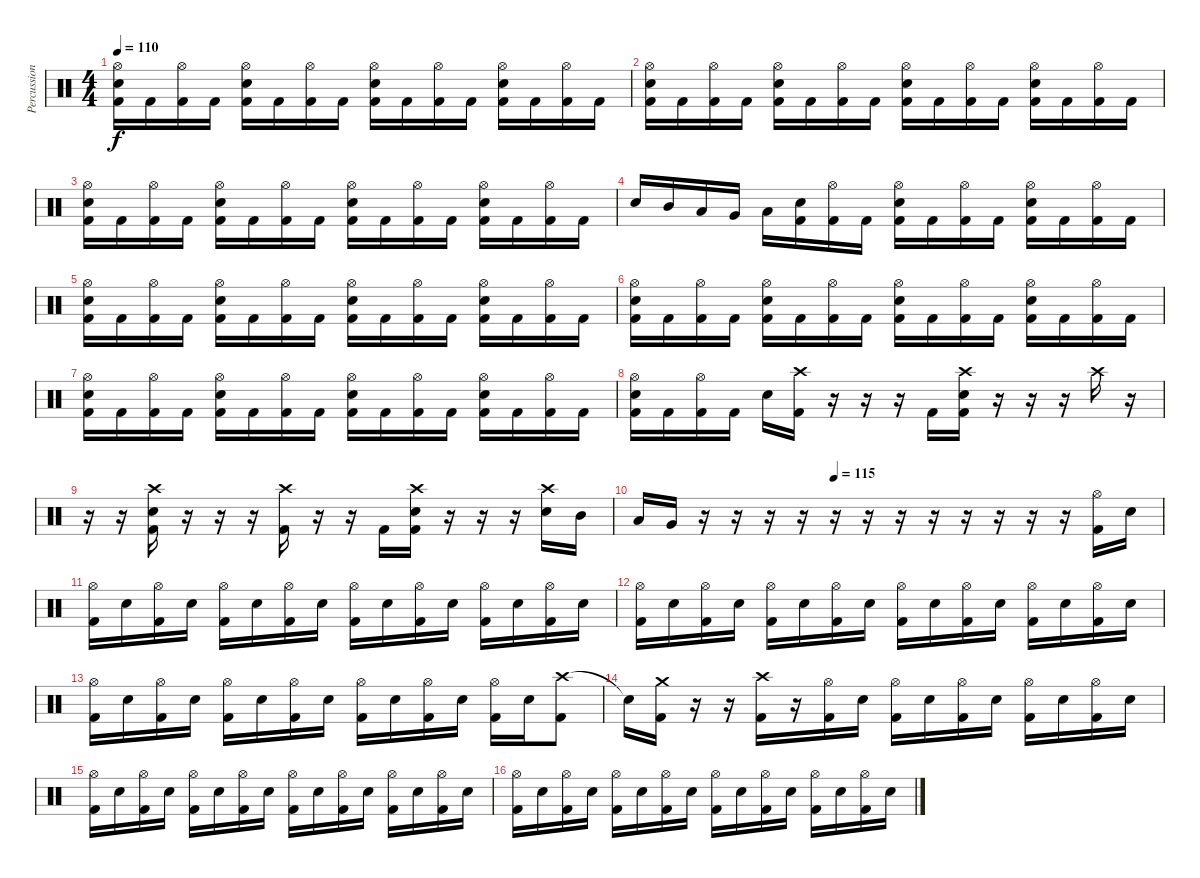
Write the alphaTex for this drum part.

\track ("Percussion" "Percussion") {instrument percussion}
\staff {score}
\articulation defaults
\ts (4 4)
\tempo 110
\clef neutral
\ks c
("Hi-Hat (open)" "Snare (hit) 2" "Kick (hit) 2").16{dy f} "Kick (hit) 2".16 ("Hi-Hat (open)" "Kick (hit) 2").16 "Kick (hit) 2".16 ("Hi-Hat (open)" "Snare (hit) 2" "Kick (hit) 2").16 "Kick (hit) 2".16 ("Hi-Hat (open)" "Kick (hit) 2").16 "Kick (hit) 2".16 ("Hi-Hat (open)" "Snare (hit) 2" "Kick (hit) 2").16 "Kick (hit) 2".16 ("Hi-Hat (open)" "Kick (hit) 2").16 "Kick (hit) 2".16 ("Hi-Hat (open)" "Snare (hit) 2" "Kick (hit) 2").16 "Kick (hit) 2".16 ("Hi-Hat (open)" "Kick (hit) 2").16 "Kick (hit) 2".16 |
("Hi-Hat (open)" "Snare (hit) 2" "Kick (hit) 2").16 "Kick (hit) 2".16 ("Hi-Hat (open)" "Kick (hit) 2").16 "Kick (hit) 2".16 ("Hi-Hat (open)" "Snare (hit) 2" "Kick (hit) 2").16 "Kick (hit) 2".16 ("Hi-Hat (open)" "Kick (hit) 2").16 "Kick (hit) 2".16 ("Hi-Hat (open)" "Snare (hit) 2" "Kick (hit) 2").16 "Kick (hit) 2".16 ("Hi-Hat (open)" "Kick (hit) 2").16 "Kick (hit) 2".16 ("Hi-Hat (open)" "Snare (hit) 2" "Kick (hit) 2").16 "Kick (hit) 2".16 ("Hi-Hat (open)" "Kick (hit) 2").16 "Kick (hit) 2".16 |
("Hi-Hat (open)" "Snare (hit) 2" "Kick (hit) 2").16 "Kick (hit) 2".16 ("Hi-Hat (open)" "Kick (hit) 2").16 "Kick (hit) 2".16 ("Hi-Hat (open)" "Snare (hit) 2" "Kick (hit) 2").16 "Kick (hit) 2".16 ("Hi-Hat (open)" "Kick (hit) 2").16 "Kick (hit) 2".16 ("Hi-Hat (open)" "Snare (hit) 2" "Kick (hit) 2").16 "Kick (hit) 2".16 ("Hi-Hat (open)" "Kick (hit) 2").16 "Kick (hit) 2".16 ("Hi-Hat (open)" "Snare (hit) 2" "Kick (hit) 2").16 "Kick (hit) 2".16 ("Hi-Hat (open)" "Kick (hit) 2").16 "Kick (hit) 2".16 |
"Snare (hit) 2".16 "Mid Tom (hit)".16 "Low Tom (hit)".16 "Very Low Tom (hit)".16 "Low Floor Tom (hit)".16 ("Snare (hit) 2" "Kick (hit) 2").16 ("Hi-Hat (open)" "Kick (hit) 2").16 "Kick (hit) 2".16 ("Hi-Hat (open)" "Snare (hit) 2" "Kick (hit) 2").16 "Kick (hit) 2".16 ("Hi-Hat (open)" "Kick (hit) 2").16 "Kick (hit) 2".16 ("Hi-Hat (open)" "Snare (hit) 2" "Kick (hit) 2").16 "Kick (hit) 2".16 ("Hi-Hat (open)" "Kick (hit) 2").16 "Kick (hit) 2".16 |
("Hi-Hat (open)" "Snare (hit) 2" "Kick (hit) 2").16 "Kick (hit) 2".16 ("Hi-Hat (open)" "Kick (hit) 2").16 "Kick (hit) 2".16 ("Hi-Hat (open)" "Snare (hit) 2" "Kick (hit) 2").16 "Kick (hit) 2".16 ("Hi-Hat (open)" "Kick (hit) 2").16 "Kick (hit) 2".16 ("Hi-Hat (open)" "Snare (hit) 2" "Kick (hit) 2").16 "Kick (hit) 2".16 ("Hi-Hat (open)" "Kick (hit) 2").16 "Kick (hit) 2".16 ("Hi-Hat (open)" "Snare (hit) 2" "Kick (hit) 2").16 "Kick (hit) 2".16 ("Hi-Hat (open)" "Kick (hit) 2").16 "Kick (hit) 2".16 |
("Hi-Hat (open)" "Snare (hit) 2" "Kick (hit) 2").16 "Kick (hit) 2".16 ("Hi-Hat (open)" "Kick (hit) 2").16 "Kick (hit) 2".16 ("Hi-Hat (open)" "Snare (hit) 2" "Kick (hit) 2").16 "Kick (hit) 2".16 ("Hi-Hat (open)" "Kick (hit) 2").16 "Kick (hit) 2".16 ("Hi-Hat (open)" "Snare (hit) 2" "Kick (hit) 2").16 "Kick (hit) 2".16 ("Hi-Hat (open)" "Kick (hit) 2").16 "Kick (hit) 2".16 ("Hi-Hat (open)" "Snare (hit) 2" "Kick (hit) 2").16 "Kick (hit) 2".16 ("Hi-Hat (open)" "Kick (hit) 2").16 "Kick (hit) 2".16 |
("Hi-Hat (open)" "Snare (hit) 2" "Kick (hit) 2").16 "Kick (hit) 2".16 ("Hi-Hat (open)" "Kick (hit) 2").16 "Kick (hit) 2".16 ("Hi-Hat (open)" "Snare (hit) 2" "Kick (hit) 2").16 "Kick (hit) 2".16 ("Hi-Hat (open)" "Kick (hit) 2").16 "Kick (hit) 2".16 ("Hi-Hat (open)" "Snare (hit) 2" "Kick (hit) 2").16 "Kick (hit) 2".16 ("Hi-Hat (open)" "Kick (hit) 2").16 "Kick (hit) 2".16 ("Hi-Hat (open)" "Snare (hit) 2" "Kick (hit) 2").16 "Kick (hit) 2".16 ("Hi-Hat (open)" "Kick (hit) 2").16 "Kick (hit) 2".16 |
("Hi-Hat (open)" "Snare (hit) 2" "Kick (hit) 2").16 "Kick (hit) 2".16 ("Hi-Hat (open)" "Kick (hit) 2").16 "Kick (hit) 2".16 "Snare (hit) 2".16 ("Crash high (hit)" "Kick (hit) 2").16 r.16 r.16 r.16 "Kick (hit) 2".16 ("Crash high (hit)" "Snare (hit) 2" "Kick (hit) 2").16 r.16 r.16 r.16 "Crash high (hit)".16 r.16 |
r.16 r.16 ("Crash high (hit)" "Snare (hit) 2" "Kick (hit) 2").16 r.16 r.16 r.16 ("Crash high (hit)" "Kick (hit) 2").16 r.16 r.16 "Kick (hit) 2".16 ("Crash high (hit)" "Snare (hit) 2" "Kick (hit) 2").16 r.16 r.16 r.16 ("Crash high (hit)" "Snare (hit) 2").16 "Mid Tom (hit)".16 |
\tempo (115 0.375)
"Low Tom (hit)".16 "Very Low Tom (hit)".16 r.16 r.16 r.16 r.16 r.16 r.16 r.16 r.16 r.16 r.16 r.16 r.16 ("Hi-Hat (open)" "Kick (hit) 2").16 "Snare (hit) 2".16 |
("Hi-Hat (open)" "Kick (hit) 2").16 "Snare (hit) 2".16 ("Hi-Hat (open)" "Kick (hit) 2").16 "Snare (hit) 2".16 ("Hi-Hat (open)" "Kick (hit) 2").16 "Snare (hit) 2".16 ("Hi-Hat (open)" "Kick (hit) 2").16 "Snare (hit) 2".16 ("Hi-Hat (open)" "Kick (hit) 2").16 "Snare (hit) 2".16 ("Hi-Hat (open)" "Kick (hit) 2").16 "Snare (hit) 2".16 ("Hi-Hat (open)" "Kick (hit) 2").16 "Snare (hit) 2".16 ("Hi-Hat (open)" "Kick (hit) 2").16 "Snare (hit) 2".16 |
("Hi-Hat (open)" "Kick (hit) 2").16 "Snare (hit) 2".16 ("Hi-Hat (open)" "Kick (hit) 2").16 "Snare (hit) 2".16 ("Hi-Hat (open)" "Kick (hit) 2").16 "Snare (hit) 2".16 ("Hi-Hat (open)" "Kick (hit) 2").16 "Snare (hit) 2".16 ("Hi-Hat (open)" "Kick (hit) 2").16 "Snare (hit) 2".16 ("Hi-Hat (open)" "Kick (hit) 2").16 "Snare (hit) 2".16 ("Hi-Hat (open)" "Kick (hit) 2").16 "Snare (hit) 2".16 ("Hi-Hat (open)" "Kick (hit) 2").16 "Snare (hit) 2".16 |
("Hi-Hat (open)" "Kick (hit) 2").16 "Snare (hit) 2".16 ("Hi-Hat (open)" "Kick (hit) 2").16 "Snare (hit) 2".16 ("Hi-Hat (open)" "Kick (hit) 2").16 "Snare (hit) 2".16 ("Hi-Hat (open)" "Kick (hit) 2").16 "Snare (hit) 2".16 ("Hi-Hat (open)" "Kick (hit) 2").16 "Snare (hit) 2".16 ("Hi-Hat (open)" "Kick (hit) 2").16 "Snare (hit) 2".16 ("Hi-Hat (open)" "Kick (hit) 2").16 "Snare (hit) 2".16 ("Crash high (hit)" "Kick (hit) 2").8 |
"Snare (hit)"{t}.16 ("Crash medium (hit)" "Kick (hit) 2").16 r.16 r.16 ("Crash high (hit)" "Kick (hit) 2").16 r.16 ("Hi-Hat (open)" "Kick (hit) 2").16 "Snare (hit) 2".16 ("Hi-Hat (open)" "Kick (hit) 2").16 "Snare (hit) 2".16 ("Hi-Hat (open)" "Kick (hit) 2").16 "Snare (hit) 2".16 ("Hi-Hat (open)" "Kick (hit) 2").16 "Snare (hit) 2".16 ("Hi-Hat (open)" "Kick (hit) 2").16 "Snare (hit) 2".16 |
("Hi-Hat (open)" "Kick (hit) 2").16 "Snare (hit) 2".16 ("Hi-Hat (open)" "Kick (hit) 2").16 "Snare (hit) 2".16 ("Hi-Hat (open)" "Kick (hit) 2").16 "Snare (hit) 2".16 ("Hi-Hat (open)" "Kick (hit) 2").16 "Snare (hit) 2".16 ("Hi-Hat (open)" "Kick (hit) 2").16 "Snare (hit) 2".16 ("Hi-Hat (open)" "Kick (hit) 2").16 "Snare (hit) 2".16 ("Hi-Hat (open)" "Kick (hit) 2").16 "Snare (hit) 2".16 ("Hi-Hat (open)" "Kick (hit) 2").16 "Snare (hit) 2".16 |
("Hi-Hat (open)" "Kick (hit) 2").16 "Snare (hit) 2".16 ("Hi-Hat (open)" "Kick (hit) 2").16 "Snare (hit) 2".16 ("Hi-Hat (open)" "Kick (hit) 2").16 "Snare (hit) 2".16 ("Hi-Hat (open)" "Kick (hit) 2").16 "Snare (hit) 2".16 ("Hi-Hat (open)" "Kick (hit) 2").16 "Snare (hit) 2".16 ("Hi-Hat (open)" "Kick (hit) 2").16 "Snare (hit) 2".16 ("Hi-Hat (open)" "Kick (hit) 2").16 "Snare (hit) 2".16 ("Hi-Hat (open)" "Kick (hit) 2").16 "Snare (hit) 2".16
